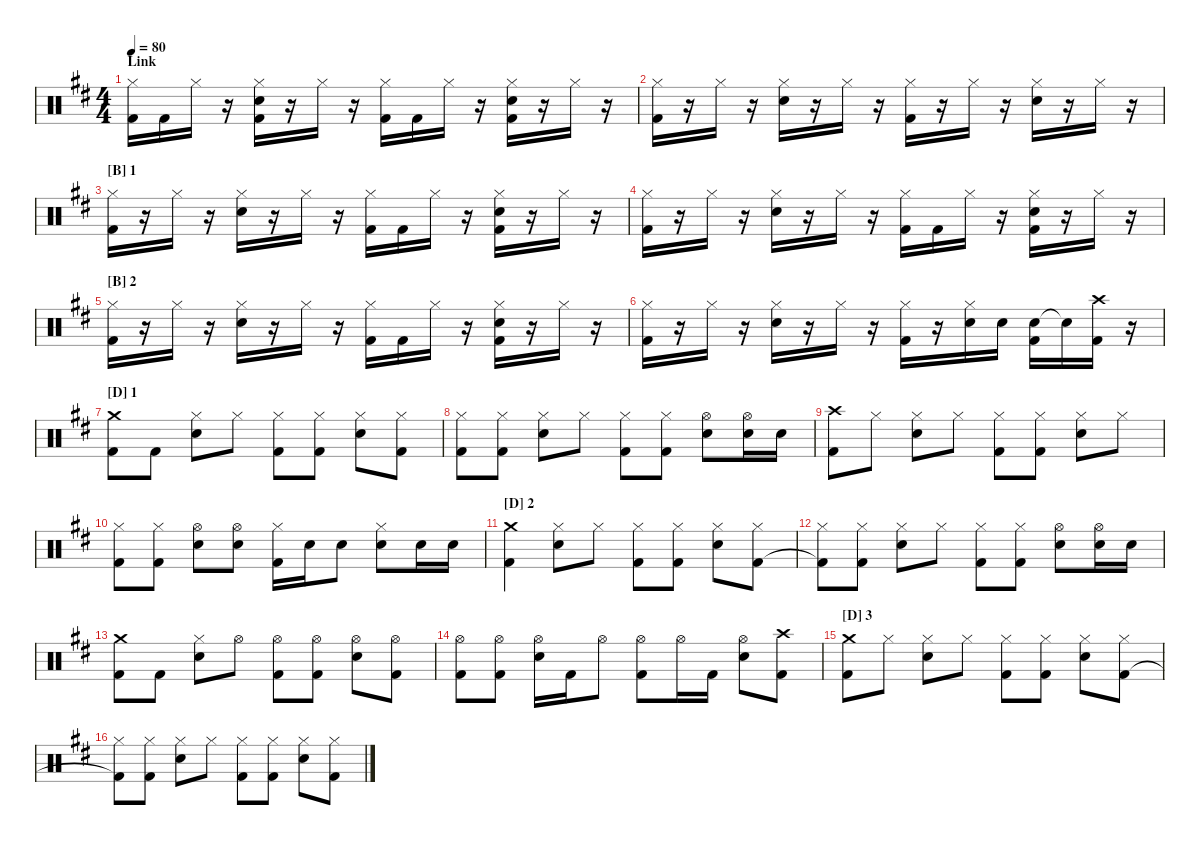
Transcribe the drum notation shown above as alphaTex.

\hideDynamics
\bracketExtendMode nobrackets
\singleTrackTrackNamePolicy hidden
\multiTrackTrackNamePolicy hidden
\otherSystemsTrackNameOrientation horizontal
\track ("Drumkit" "Drums") {instrument percussion}
\staff {score}
\articulation defaults
\ts (4 4)
\section ("" "Link")
\tempo 80
\clef neutral
\ks d
("Hi-Hat (closed)"{acc forcenatural} "Kick (hit) 2"{acc forcenatural}).16{dy f beam Down} "Kick (hit) 2"{acc forcenatural}.16{beam Down} "Hi-Hat (closed)"{acc forcenatural}.16{beam Down} r.16{beam Down} ("Hi-Hat (closed)"{acc forcenatural} "Snare (hit) 2"{acc forcenatural} "Kick (hit) 2"{acc forcenatural}).16{beam Down} r.16{beam Down} "Hi-Hat (closed)"{acc forcenatural}.16{beam Down} r.16{beam Down} ("Hi-Hat (closed)"{acc forcenatural} "Kick (hit) 2"{acc forcenatural}).16{beam Down} "Kick (hit) 2"{acc forcenatural}.16{beam Down} "Hi-Hat (closed)"{acc forcenatural}.16{beam Down} r.16{beam Down} ("Hi-Hat (closed)"{acc forcenatural} "Snare (hit) 2"{acc forcenatural} "Kick (hit) 2"{acc forcenatural}).16{beam Down} r.16{beam Down} "Hi-Hat (closed)"{acc forcenatural}.16{beam Down} r.16{beam Down} |
("Hi-Hat (closed)"{acc forcenatural} "Kick (hit) 2"{acc forcenatural}).16{beam Down} r.16{beam Down} "Hi-Hat (closed)"{acc forcenatural}.16{beam Down} r.16{beam Down} ("Hi-Hat (closed)"{acc forcenatural} "Snare (hit) 2"{acc forcenatural}).16{beam Down} r.16{beam Down} "Hi-Hat (closed)"{acc forcenatural}.16{beam Down} r.16{beam Down} ("Hi-Hat (closed)"{acc forcenatural} "Kick (hit) 2"{acc forcenatural}).16{beam Down} r.16{beam Down} "Hi-Hat (closed)"{acc forcenatural}.16{beam Down} r.16{beam Down} ("Hi-Hat (closed)"{acc forcenatural} "Snare (hit) 2"{acc forcenatural}).16{beam Down} r.16{beam Down} "Hi-Hat (closed)"{acc forcenatural}.16{beam Down} r.16{beam Down} |
\section ("B" "1")
("Hi-Hat (closed)"{acc forcenatural} "Kick (hit) 2"{acc forcenatural}).16{beam Down} r.16{beam Down} "Hi-Hat (closed)"{acc forcenatural}.16{beam Down} r.16{beam Down} ("Hi-Hat (closed)"{acc forcenatural} "Snare (hit) 2"{acc forcenatural}).16{beam Down} r.16{beam Down} "Hi-Hat (closed)"{acc forcenatural}.16{beam Down} r.16{beam Down} ("Hi-Hat (closed)"{acc forcenatural} "Kick (hit) 2"{acc forcenatural}).16{beam Down} "Kick (hit) 2"{acc forcenatural}.16{beam Down} "Hi-Hat (closed)"{acc forcenatural}.16{beam Down} r.16{beam Down} ("Hi-Hat (closed)"{acc forcenatural} "Snare (hit) 2"{acc forcenatural} "Kick (hit) 2"{acc forcenatural}).16{beam Down} r.16{beam Down} "Hi-Hat (closed)"{acc forcenatural}.16{beam Down} r.16{beam Down} |
("Hi-Hat (closed)"{acc forcenatural} "Kick (hit) 2"{acc forcenatural}).16{beam Down} r.16{beam Down} "Hi-Hat (closed)"{acc forcenatural}.16{beam Down} r.16{beam Down} ("Hi-Hat (closed)"{acc forcenatural} "Snare (hit) 2"{acc forcenatural}).16{beam Down} r.16{beam Down} "Hi-Hat (closed)"{acc forcenatural}.16{beam Down} r.16{beam Down} ("Hi-Hat (closed)"{acc forcenatural} "Kick (hit) 2"{acc forcenatural}).16{beam Down} "Kick (hit) 2"{acc forcenatural}.16{beam Down} "Hi-Hat (closed)"{acc forcenatural}.16{beam Down} r.16{beam Down} ("Hi-Hat (closed)"{acc forcenatural} "Snare (hit) 2"{acc forcenatural} "Kick (hit) 2"{acc forcenatural}).16{beam Down} r.16{beam Down} "Hi-Hat (closed)"{acc forcenatural}.16{beam Down} r.16{beam Down} |
\section ("B" "2")
("Hi-Hat (closed)"{acc forcenatural} "Kick (hit) 2"{acc forcenatural}).16{beam Down} r.16{beam Down} "Hi-Hat (closed)"{acc forcenatural}.16{beam Down} r.16{beam Down} ("Hi-Hat (closed)"{acc forcenatural} "Snare (hit) 2"{acc forcenatural}).16{beam Down} r.16{beam Down} "Hi-Hat (closed)"{acc forcenatural}.16{beam Down} r.16{beam Down} ("Hi-Hat (closed)"{acc forcenatural} "Kick (hit) 2"{acc forcenatural}).16{beam Down} "Kick (hit) 2"{acc forcenatural}.16{beam Down} "Hi-Hat (closed)"{acc forcenatural}.16{beam Down} r.16{beam Down} ("Hi-Hat (closed)"{acc forcenatural} "Snare (hit) 2"{acc forcenatural} "Kick (hit) 2"{acc forcenatural}).16{beam Down} r.16{beam Down} "Hi-Hat (closed)"{acc forcenatural}.16{beam Down} r.16{beam Down} |
("Hi-Hat (closed)"{acc forcenatural} "Kick (hit) 2"{acc forcenatural}).16{beam Down} r.16{beam Down} "Hi-Hat (closed)"{acc forcenatural}.16{beam Down} r.16{beam Down} ("Hi-Hat (closed)"{acc forcenatural} "Snare (hit) 2"{acc forcenatural}).16{beam Down} r.16{beam Down} "Hi-Hat (closed)"{acc forcenatural}.16{beam Down} r.16{beam Down} ("Hi-Hat (closed)"{acc forcenatural} "Kick (hit) 2"{acc forcenatural}).16{beam Down} r.16{beam Down} ("Hi-Hat (closed)"{acc forcenatural} "Snare (hit) 2"{acc forcenatural}).16{beam Down} "Snare (hit) 2"{acc forcenatural}.16{beam Down} ("Snare (hit) 2"{acc forcenatural} "Kick (hit) 2"{acc forcenatural}).16{beam Down} "Snare (hit) 2"{t acc forcenatural}.16{beam Down} ("Crash high (hit)"{acc forcenatural} "Kick (hit) 2"{acc forcenatural}).16{beam Down} r.16{beam Down} |
\section ("D" "1")
("Crash medium (hit)"{acc forcenatural} "Kick (hit) 2"{acc forcenatural}).8{beam Down} "Kick (hit) 2"{acc forcenatural}.8{beam Down} ("Hi-Hat (closed)"{acc forcenatural} "Snare (hit) 2"{acc forcenatural}).8{beam Down} "Hi-Hat (closed)"{acc forcenatural}.8{beam Down} ("Hi-Hat (closed)"{acc forcenatural} "Kick (hit) 2"{acc forcenatural}).8{beam Down} ("Hi-Hat (closed)"{acc forcenatural} "Kick (hit) 2"{acc forcenatural}).8{beam Down} ("Hi-Hat (closed)"{acc forcenatural} "Snare (hit) 2"{acc forcenatural}).8{beam Down} ("Hi-Hat (closed)"{acc forcenatural} "Kick (hit) 2"{acc forcenatural}).8{beam Down} |
("Hi-Hat (closed)"{acc forcenatural} "Kick (hit) 2"{acc forcenatural}).8{beam Down} ("Hi-Hat (closed)"{acc forcenatural} "Kick (hit) 2"{acc forcenatural}).8{beam Down} ("Hi-Hat (closed)"{acc forcenatural} "Snare (hit) 2"{acc forcenatural}).8{beam Down} "Hi-Hat (closed)"{acc forcenatural}.8{beam Down} ("Hi-Hat (closed)"{acc forcenatural} "Kick (hit) 2"{acc forcenatural}).8{beam Down} ("Hi-Hat (closed)"{acc forcenatural} "Kick (hit) 2"{acc forcenatural}).8{beam Down} ("Hi-Hat (open)"{acc forcenatural} "Snare (hit) 2"{acc forcenatural}).8{beam Down} ("Hi-Hat (open)"{acc forcenatural} "Snare (hit) 2"{acc forcenatural}).16{beam Down} "Snare (hit) 2"{acc forcenatural}.16{beam Down} |
("Crash high (hit)"{acc forcenatural} "Kick (hit) 2"{acc forcenatural}).8{beam Down} "Hi-Hat (closed)"{acc forcenatural}.8{beam Down} ("Hi-Hat (closed)"{acc forcenatural} "Snare (hit) 2"{acc forcenatural}).8{beam Down} "Hi-Hat (closed)"{acc forcenatural}.8{beam Down} ("Hi-Hat (closed)"{acc forcenatural} "Kick (hit) 2"{acc forcenatural}).8{beam Down} ("Hi-Hat (closed)"{acc forcenatural} "Kick (hit) 2"{acc forcenatural}).8{beam Down} ("Hi-Hat (closed)"{acc forcenatural} "Snare (hit) 2"{acc forcenatural}).8{beam Down} "Hi-Hat (closed)"{acc forcenatural}.8{beam Down} |
("Hi-Hat (closed)"{acc forcenatural} "Kick (hit) 2"{acc forcenatural}).8{beam Down} ("Hi-Hat (closed)"{acc forcenatural} "Kick (hit) 2"{acc forcenatural}).8{beam Down} ("Hi-Hat (open)"{acc forcenatural} "Snare (hit) 2"{acc forcenatural}).8{beam Down} ("Hi-Hat (open)"{acc forcenatural} "Snare (hit) 2"{acc forcenatural}).8{beam Down} ("Hi-Hat (closed)"{acc forcenatural} "Kick (hit) 2"{acc forcenatural}).16{beam Down} "Snare (hit) 2"{acc forcenatural}.16{beam Down} "Snare (hit) 2"{acc forcenatural}.8{beam Down} ("Hi-Hat (closed)"{acc forcenatural} "Snare (hit) 2"{acc forcenatural}).8{beam Down} "Snare (hit) 2"{acc forcenatural}.16{beam Down} "Snare (hit) 2"{acc forcenatural}.16{beam Down} |
\section ("D" "2")
("Crash medium (hit)"{acc forcenatural} "Kick (hit) 2"{acc forcenatural}).4{beam Down} ("Hi-Hat (closed)"{acc forcenatural} "Snare (hit) 2"{acc forcenatural}).8{beam Down} "Hi-Hat (closed)"{acc forcenatural}.8{beam Down} ("Hi-Hat (closed)"{acc forcenatural} "Kick (hit) 2"{acc forcenatural}).8{beam Down} ("Hi-Hat (closed)"{acc forcenatural} "Kick (hit) 2"{acc forcenatural}).8{beam Down} ("Hi-Hat (closed)"{acc forcenatural} "Snare (hit) 2"{acc forcenatural}).8{beam Down} ("Hi-Hat (closed)"{acc forcenatural} "Kick (hit) 2"{acc forcenatural}).8{beam Down} |
("Hi-Hat (closed)"{acc forcenatural} "Kick (hit) 2"{t acc forcenatural}).8{beam Down} ("Hi-Hat (closed)"{acc forcenatural} "Kick (hit) 2"{acc forcenatural}).8{beam Down} ("Hi-Hat (closed)"{acc forcenatural} "Snare (hit) 2"{acc forcenatural}).8{beam Down} "Hi-Hat (closed)"{acc forcenatural}.8{beam Down} ("Hi-Hat (closed)"{acc forcenatural} "Kick (hit) 2"{acc forcenatural}).8{beam Down} ("Hi-Hat (closed)"{acc forcenatural} "Kick (hit) 2"{acc forcenatural}).8{beam Down} ("Hi-Hat (open)"{acc forcenatural} "Snare (hit) 2"{acc forcenatural}).8{beam Down} ("Hi-Hat (open)"{acc forcenatural} "Snare (hit) 2"{acc forcenatural}).16{beam Down} "Snare (hit) 2"{acc forcenatural}.16{beam Down} |
("Crash medium (hit)"{acc forcenatural} "Kick (hit) 2"{acc forcenatural}).8{beam Down} "Kick (hit) 2"{acc forcenatural}.8{beam Down} ("Hi-Hat (closed)"{acc forcenatural} "Snare (hit) 2"{acc forcenatural}).8{beam Down} "Hi-Hat (open)"{acc forcenatural}.8{beam Down} ("Hi-Hat (open)"{acc forcenatural} "Kick (hit) 2"{acc forcenatural}).8{beam Down} ("Hi-Hat (open)"{acc forcenatural} "Kick (hit) 2"{acc forcenatural}).8{beam Down} ("Hi-Hat (open)"{acc forcenatural} "Snare (hit) 2"{acc forcenatural}).8{beam Down} ("Hi-Hat (open)"{acc forcenatural} "Kick (hit) 2"{acc forcenatural}).8{beam Down} |
("Hi-Hat (open)"{acc forcenatural} "Kick (hit) 2"{acc forcenatural}).8{beam Down} ("Hi-Hat (open)"{acc forcenatural} "Kick (hit) 2"{acc forcenatural}).8{beam Down} ("Hi-Hat (open)"{acc forcenatural} "Snare (hit) 2"{acc forcenatural}).16{beam Down} "Kick (hit) 2"{acc forcenatural}.16{beam Down} "Hi-Hat (open)"{acc forcenatural}.8{beam Down} ("Hi-Hat (open)"{acc forcenatural} "Kick (hit) 2"{acc forcenatural}).8{beam Down} "Hi-Hat (open)"{acc forcenatural}.16{beam Down} "Kick (hit) 2"{acc forcenatural}.16{beam Down} ("Hi-Hat (open)"{acc forcenatural} "Snare (hit) 2"{acc forcenatural}).8{beam Down} ("Crash high (hit)"{acc forcenatural} "Kick (hit) 2"{acc forcenatural}).8{beam Down} |
\section ("D" "3")
("Crash medium (hit)"{acc forcenatural} "Kick (hit) 2"{acc forcenatural}).8{beam Down} "Hi-Hat (closed)"{acc forcenatural}.8{beam Down} ("Hi-Hat (closed)"{acc forcenatural} "Snare (hit) 2"{acc forcenatural}).8{beam Down} "Hi-Hat (closed)"{acc forcenatural}.8{beam Down} ("Hi-Hat (closed)"{acc forcenatural} "Kick (hit) 2"{acc forcenatural}).8{beam Down} ("Hi-Hat (closed)"{acc forcenatural} "Kick (hit) 2"{acc forcenatural}).8{beam Down} ("Hi-Hat (closed)"{acc forcenatural} "Snare (hit) 2"{acc forcenatural}).8{beam Down} ("Hi-Hat (closed)"{acc forcenatural} "Kick (hit) 2"{acc forcenatural}).8{beam Down} |
("Hi-Hat (closed)"{acc forcenatural} "Kick (hit) 2"{t acc forcenatural}).8{beam Down} ("Hi-Hat (closed)"{acc forcenatural} "Kick (hit) 2"{acc forcenatural}).8{beam Down} ("Hi-Hat (closed)"{acc forcenatural} "Snare (hit) 2"{acc forcenatural}).8{beam Down} "Hi-Hat (closed)"{acc forcenatural}.8{beam Down} ("Hi-Hat (closed)"{acc forcenatural} "Kick (hit) 2"{acc forcenatural}).8{beam Down} ("Hi-Hat (closed)"{acc forcenatural} "Kick (hit) 2"{acc forcenatural}).8{beam Down} ("Hi-Hat (closed)"{acc forcenatural} "Snare (hit) 2"{acc forcenatural}).8{beam Down} ("Hi-Hat (closed)"{acc forcenatural} "Kick (hit) 2"{acc forcenatural}).8{beam Down}
